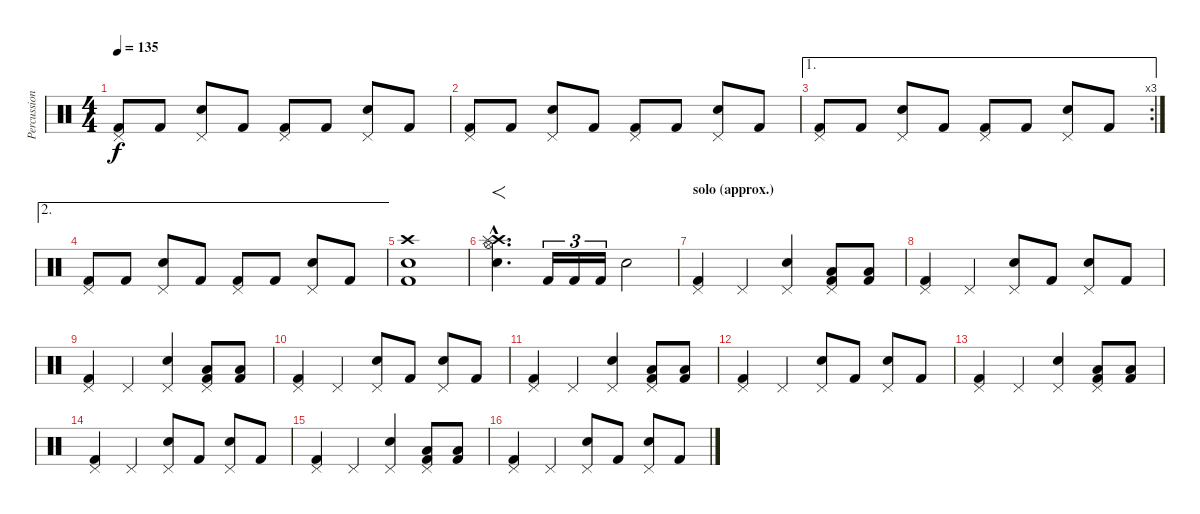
\track ("Percussion" "Percussion") {instrument percussion}
\staff {score}
\articulation defaults
\ts (4 4)
\tempo 135
\clef neutral
\ks c
("Pedal Hi-Hat (hit)" "Kick (hit) 2").8{dy f} "Kick (hit) 2".8 ("Pedal Hi-Hat (hit)" "Electric Snare (hit)").8 "Kick (hit) 2".8 ("Pedal Hi-Hat (hit)" "Kick (hit) 2").8 "Kick (hit) 2".8 ("Pedal Hi-Hat (hit)" "Electric Snare (hit)").8 "Kick (hit) 2".8 |
("Pedal Hi-Hat (hit)" "Kick (hit) 2").8 "Kick (hit) 2".8 ("Pedal Hi-Hat (hit)" "Electric Snare (hit)").8 "Kick (hit) 2".8 ("Pedal Hi-Hat (hit)" "Kick (hit) 2").8 "Kick (hit) 2".8 ("Pedal Hi-Hat (hit)" "Electric Snare (hit)").8 "Kick (hit) 2".8 |
\ae 1
\rc 3
("Pedal Hi-Hat (hit)" "Kick (hit) 2").8 "Kick (hit) 2".8 ("Pedal Hi-Hat (hit)" "Electric Snare (hit)").8 "Kick (hit) 2".8 ("Pedal Hi-Hat (hit)" "Kick (hit) 2").8 "Kick (hit) 2".8 ("Pedal Hi-Hat (hit)" "Electric Snare (hit)").8 "Kick (hit) 2".8 |
\ae 2
("Pedal Hi-Hat (hit)" "Kick (hit) 2").8 "Kick (hit) 2".8 ("Pedal Hi-Hat (hit)" "Electric Snare (hit)").8 "Kick (hit) 2".8 ("Pedal Hi-Hat (hit)" "Kick (hit) 2").8 "Kick (hit) 2".8 ("Pedal Hi-Hat (hit)" "Electric Snare (hit)").8 "Kick (hit) 2".8 |
("Crash high (hit)" "Electric Snare (hit)" "Kick (hit) 2").1 |
("Crash high (hit)"{hac} "Hand Clap (hit)"{hac} "Splash (hit)"{hac} "Hi-Hat (open)"{hac}).4{f d} "Kick (hit) 2".16{tu (3 2)} "Kick (hit) 2".16{tu (3 2)} "Kick (hit) 2".16{tu (3 2)} "Electric Snare (hit)".2 |
\section ("" "solo (approx.)")
("Pedal Hi-Hat (hit)" "Kick (hit) 2").4 "Pedal Hi-Hat (hit)".4 ("Pedal Hi-Hat (hit)" "Electric Snare (hit)").4 ("Pedal Hi-Hat (hit)" "Low Tom (hit)" "Kick (hit) 2").8 ("Low Floor Tom (hit)" "Kick (hit) 2").8 |
("Pedal Hi-Hat (hit)" "Kick (hit) 2").4 "Pedal Hi-Hat (hit)".4 ("Pedal Hi-Hat (hit)" "Electric Snare (hit)").8 "Kick (hit) 2".8 ("Pedal Hi-Hat (hit)" "Electric Snare (hit)").8 "Kick (hit) 2".8 |
("Pedal Hi-Hat (hit)" "Kick (hit) 2").4 "Pedal Hi-Hat (hit)".4 ("Pedal Hi-Hat (hit)" "Electric Snare (hit)").4 ("Pedal Hi-Hat (hit)" "Low Tom (hit)" "Kick (hit) 2").8 ("Low Floor Tom (hit)" "Kick (hit) 2").8 |
("Pedal Hi-Hat (hit)" "Kick (hit) 2").4 "Pedal Hi-Hat (hit)".4 ("Pedal Hi-Hat (hit)" "Electric Snare (hit)").8 "Kick (hit) 2".8 ("Pedal Hi-Hat (hit)" "Electric Snare (hit)").8 "Kick (hit) 2".8 |
("Pedal Hi-Hat (hit)" "Kick (hit) 2").4 "Pedal Hi-Hat (hit)".4 ("Pedal Hi-Hat (hit)" "Electric Snare (hit)").4 ("Pedal Hi-Hat (hit)" "Low Tom (hit)" "Kick (hit) 2").8 ("Low Floor Tom (hit)" "Kick (hit) 2").8 |
("Pedal Hi-Hat (hit)" "Kick (hit) 2").4 "Pedal Hi-Hat (hit)".4 ("Pedal Hi-Hat (hit)" "Electric Snare (hit)").8 "Kick (hit) 2".8 ("Pedal Hi-Hat (hit)" "Electric Snare (hit)").8 "Kick (hit) 2".8 |
("Pedal Hi-Hat (hit)" "Kick (hit) 2").4 "Pedal Hi-Hat (hit)".4 ("Pedal Hi-Hat (hit)" "Electric Snare (hit)").4 ("Pedal Hi-Hat (hit)" "Low Tom (hit)" "Kick (hit) 2").8 ("Low Floor Tom (hit)" "Kick (hit) 2").8 |
("Pedal Hi-Hat (hit)" "Kick (hit) 2").4 "Pedal Hi-Hat (hit)".4 ("Pedal Hi-Hat (hit)" "Electric Snare (hit)").8 "Kick (hit) 2".8 ("Pedal Hi-Hat (hit)" "Electric Snare (hit)").8 "Kick (hit) 2".8 |
("Pedal Hi-Hat (hit)" "Kick (hit) 2").4 "Pedal Hi-Hat (hit)".4 ("Pedal Hi-Hat (hit)" "Electric Snare (hit)").4 ("Pedal Hi-Hat (hit)" "Low Tom (hit)" "Kick (hit) 2").8 ("Low Floor Tom (hit)" "Kick (hit) 2").8 |
("Pedal Hi-Hat (hit)" "Kick (hit) 2").4 "Pedal Hi-Hat (hit)".4 ("Pedal Hi-Hat (hit)" "Electric Snare (hit)").8 "Kick (hit) 2".8 ("Pedal Hi-Hat (hit)" "Electric Snare (hit)").8 "Kick (hit) 2".8
